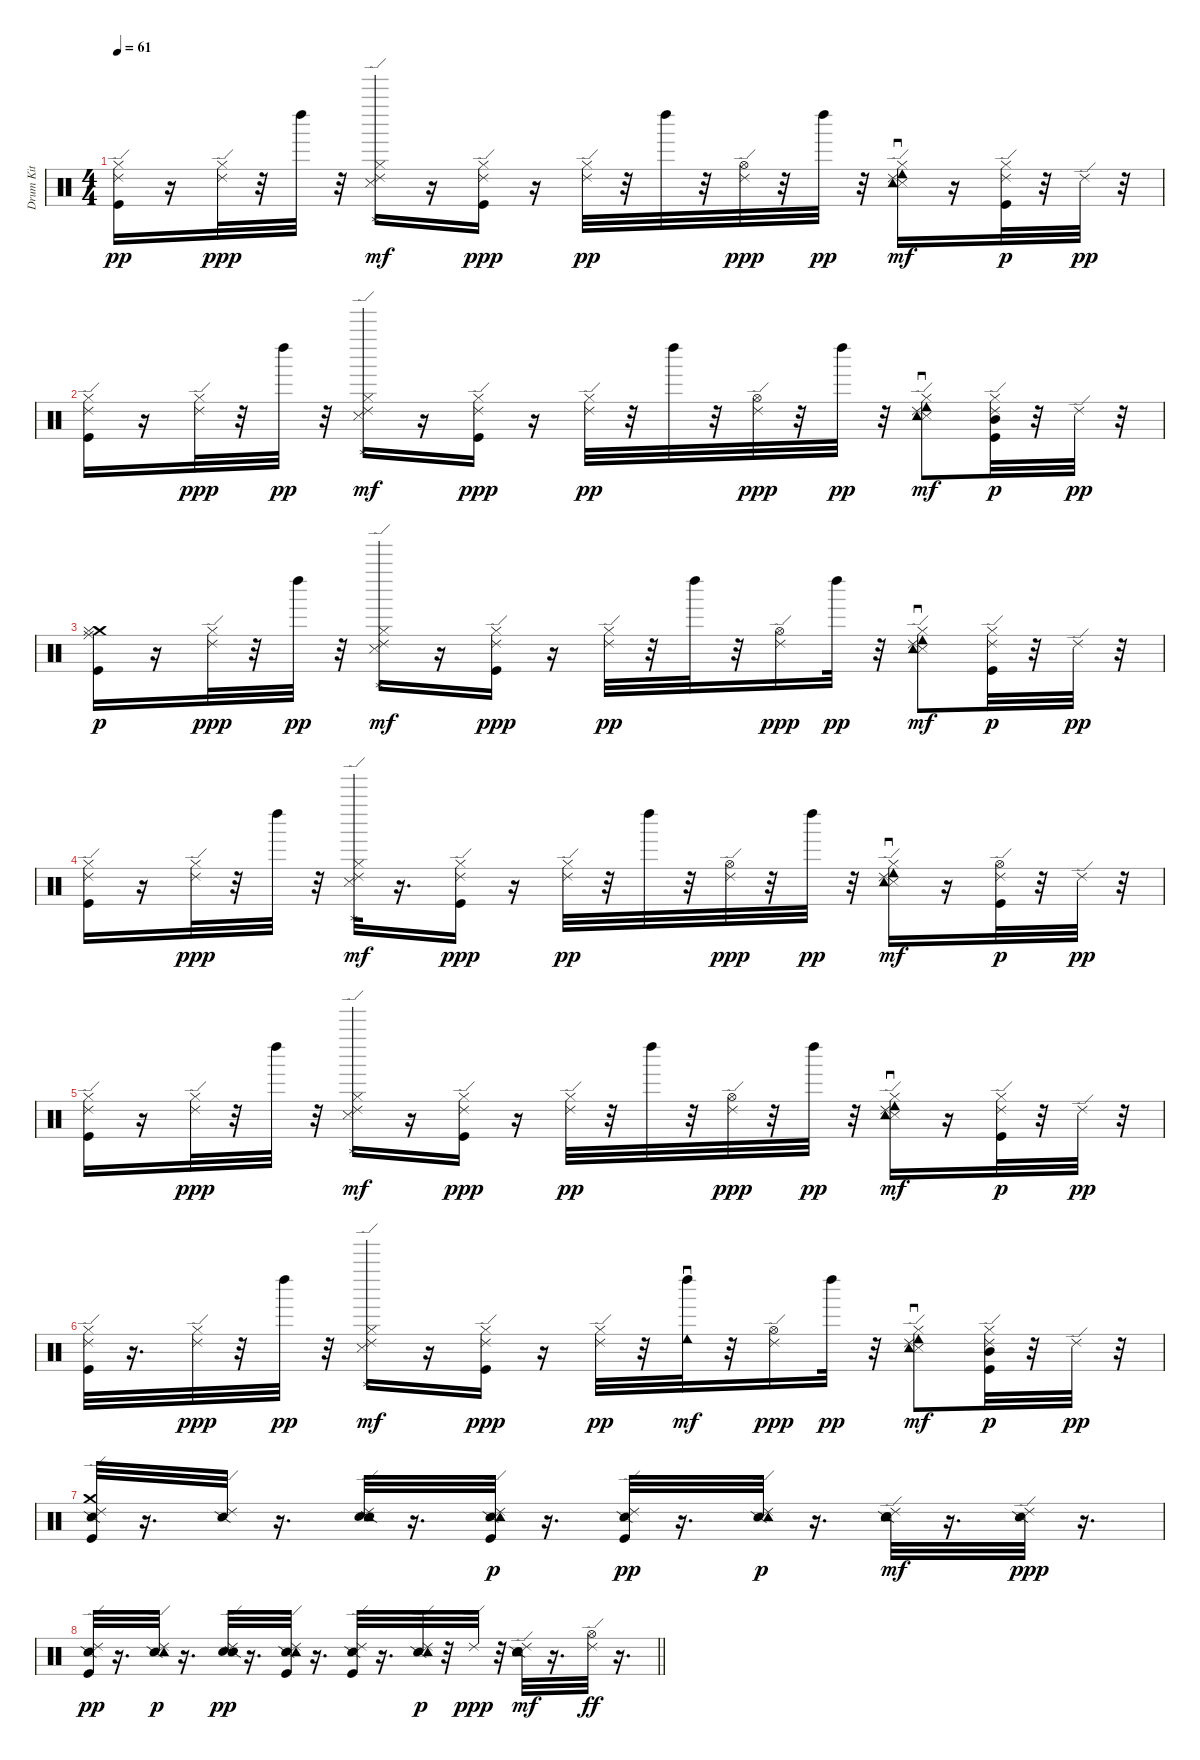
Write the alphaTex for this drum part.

\track ("Drum Kit" "Drum Kit") {instrument percussion}
\staff {score}
\articulation defaults
\ts (4 4)
\tempo 61
\clef neutral
\ks c
("Kick (hit)" "Hi-Hat (closed)" "Ride (edge) 2").16{dy pp} r.16 ("Hi-Hat (closed)" "Ride (edge) 2").32{dy ppp} r.32 "Left Maraca (hit)".32 r.32 ("Hi-Hat (closed)" "Ride (edge) 2" "Snare (side stick) 3" "Golpe (thumb)").16{dy mf} r.16 ("Kick (hit)" "Hi-Hat (closed)" "Ride (edge) 2").16{dy ppp} r.16 ("Hi-Hat (closed)" "Ride (edge) 2").32{dy pp} r.32 "Left Maraca (hit)".32 r.32 ("Hi-Hat (open)" "Ride (edge) 2").32{dy ppp} r.32 "Left Maraca (hit)".32{dy pp} r.32 ("Hi-Hat (closed)" "Ride (edge) 2" "Snare (side stick) 3" "Tambourine (roll)" "Tambourine (hit)").16{dy mf} r.16 ("Kick (hit)" "Ride (edge) 2" "Hi-Hat (closed)").32{dy p} r.32 "Ride (edge) 2".32{dy pp} r.32 |
("Kick (hit)" "Hi-Hat (closed)" "Ride (edge) 2").16 r.16 ("Hi-Hat (closed)" "Ride (edge) 2").32{dy ppp} r.32 "Left Maraca (hit)".32{dy pp} r.32 ("Hi-Hat (closed)" "Ride (edge) 2" "Snare (side stick) 3" "Golpe (thumb)").16{dy mf} r.16 ("Kick (hit)" "Hi-Hat (closed)" "Ride (edge) 2").16{dy ppp} r.16 ("Hi-Hat (closed)" "Ride (edge) 2").32{dy pp} r.32 "Left Maraca (hit)".32 r.32 ("Hi-Hat (open)" "Ride (edge) 2").32{dy ppp} r.32 "Left Maraca (hit)".32{dy pp} r.32 ("Hi-Hat (closed)" "Ride (edge) 2" "Snare (side stick) 3" "Tambourine (roll)" "Tambourine (hit)").8{dy mf} ("Kick (hit)" "Ride (edge) 2" "Hi-Hat (closed)" "Mid Tom (hit)").32{dy p} r.32 "Ride (edge) 2".32{dy pp} r.32 |
("Crash medium (hit)" "Kick (hit)" "Hi-Hat (closed)" "Ride (middle)").16{dy p} r.16 ("Hi-Hat (closed)" "Ride (edge) 2").32{dy ppp} r.32 "Left Maraca (hit)".32{dy pp} r.32 ("Hi-Hat (closed)" "Ride (edge) 2" "Snare (side stick) 3" "Golpe (thumb)").16{dy mf} r.16 ("Kick (hit)" "Hi-Hat (closed)" "Ride (edge) 2").16{dy ppp} r.16 ("Hi-Hat (closed)" "Ride (edge) 2").32{dy pp} r.32 "Left Maraca (hit)".32 r.32 ("Hi-Hat (open)" "Ride (edge) 2").16{dy ppp} "Left Maraca (hit)".32{dy pp} r.32 ("Hi-Hat (closed)" "Ride (edge) 2" "Snare (side stick) 3" "Tambourine (roll)" "Tambourine (hit)").8{dy mf} ("Kick (hit)" "Ride (edge) 2" "Hi-Hat (closed)").32{dy p} r.32 "Ride (edge) 2".32{dy pp} r.32 |
("Kick (hit)" "Hi-Hat (closed)" "Ride (edge) 2").16 r.16 ("Hi-Hat (closed)" "Ride (edge) 2").32{dy ppp} r.32 "Left Maraca (hit)".32 r.32 ("Hi-Hat (closed)" "Ride (edge) 2" "Snare (side stick) 3" "Golpe (thumb)").32{dy mf} r.16{d} ("Kick (hit)" "Hi-Hat (closed)" "Ride (edge) 2").16{dy ppp} r.16 ("Hi-Hat (closed)" "Ride (edge) 2").32{dy pp} r.32 "Left Maraca (hit)".32 r.32 ("Hi-Hat (open)" "Ride (edge) 2").32{dy ppp} r.32 "Left Maraca (hit)".32{dy pp} r.32 ("Hi-Hat (closed)" "Ride (edge) 2" "Snare (side stick) 3" "Tambourine (roll)" "Tambourine (hit)").16{dy mf} r.16 ("Kick (hit)" "Ride (edge) 2" "Hi-Hat (open)").32{dy p} r.32 "Ride (edge) 2".32{dy pp} r.32 |
("Kick (hit)" "Hi-Hat (closed)" "Ride (edge) 2").16 r.16 ("Hi-Hat (closed)" "Ride (edge) 2").32{dy ppp} r.32 "Left Maraca (hit)".32 r.32 ("Hi-Hat (closed)" "Ride (edge) 2" "Snare (side stick) 3" "Golpe (thumb)").16{dy mf} r.16 ("Kick (hit)" "Hi-Hat (closed)" "Ride (edge) 2").16{dy ppp} r.16 ("Hi-Hat (closed)" "Ride (edge) 2").32{dy pp} r.32 "Left Maraca (hit)".32 r.32 ("Hi-Hat (open)" "Ride (edge) 2").32{dy ppp} r.32 "Left Maraca (hit)".32{dy pp} r.32 ("Hi-Hat (closed)" "Ride (edge) 2" "Snare (side stick) 3" "Tambourine (roll)" "Tambourine (hit)").16{dy mf} r.16 ("Kick (hit)" "Ride (edge) 2" "Hi-Hat (closed)").32{dy p} r.32 "Ride (edge) 2".32{dy pp} r.32 |
("Kick (hit)" "Hi-Hat (closed)" "Ride (edge) 2").32 r.16{d} ("Hi-Hat (closed)" "Ride (edge) 2").32{dy ppp} r.32 "Left Maraca (hit)".32{dy pp} r.32 ("Hi-Hat (closed)" "Ride (edge) 2" "Snare (side stick) 3" "Golpe (thumb)").16{dy mf} r.16 ("Kick (hit)" "Hi-Hat (closed)" "Ride (edge) 2").16{dy ppp} r.16 ("Hi-Hat (closed)" "Ride (edge) 2").32{dy pp} r.32 ("Left Maraca (hit)" "Tambourine (roll)").32{dy mf} r.32 ("Hi-Hat (open)" "Ride (edge) 2").16{dy ppp} "Left Maraca (hit)".32{dy pp} r.32 ("Hi-Hat (closed)" "Ride (edge) 2" "Snare (side stick) 3" "Tambourine (roll)" "Tambourine (hit)").8{dy mf} ("Kick (hit)" "Ride (edge) 2" "Hi-Hat (closed)" "Mid Tom (hit)").32{dy p} r.32 "Ride (edge) 2".32{dy pp} r.32 |
("Crash medium (hit)" "Kick (hit)" "Ride (edge) 2" "Snare (side stick) 2").32 r.16{d} ("Ride (edge) 2" "Snare (side stick) 2").32 r.16{d} ("Snare (hit) 2" "Ride (edge) 2" "Snare (side stick) 2" "Tambourine (hit)").32 r.16{d} ("Kick (hit)" "Ride (edge) 2" "Snare (side stick) 2" "Tambourine (hit)").32{dy p} r.16{d} ("Kick (hit)" "Ride (edge) 2" "Snare (side stick) 2").32{dy pp} r.16{d} ("Ride (edge) 2" "Snare (side stick) 2" "Tambourine (hit)").32{dy p} r.16{d} ("Snare (hit) 2" "Ride (edge) 2" "Snare (side stick) 2" "Tambourine (hit)").32{dy mf} r.16{d} ("Ride (edge) 2" "Snare (side stick) 2").32{dy ppp} r.16{d} |
\barLineRight lightlight
("Kick (hit)" "Ride (edge) 2" "Snare (side stick) 2").32{dy pp} r.16{d} ("Ride (edge) 2" "Snare (side stick) 2" "Tambourine (hit)").32{dy p} r.16{d} ("Snare (hit) 2" "Ride (edge) 2" "Snare (side stick) 2").32{dy pp} r.16{d} ("Kick (hit)" "Ride (edge) 2" "Snare (side stick) 2" "Tambourine (hit)").32 r.16{d} ("Kick (hit)" "Ride (edge) 2" "Snare (side stick) 2").32 r.16{d} ("Ride (edge) 2" "Snare (side stick) 2" "Tambourine (hit)").32{dy p} r.32 "Ride (edge) 2".32{dy ppp} r.32 ("Snare (hit) 2" "Ride (edge) 2" "Snare (side stick) 2" "Tambourine (hit)").32{dy mf} r.16{d} ("Ride (edge) 2" "Hi-Hat (open)").32{dy ff} r.16{d}
